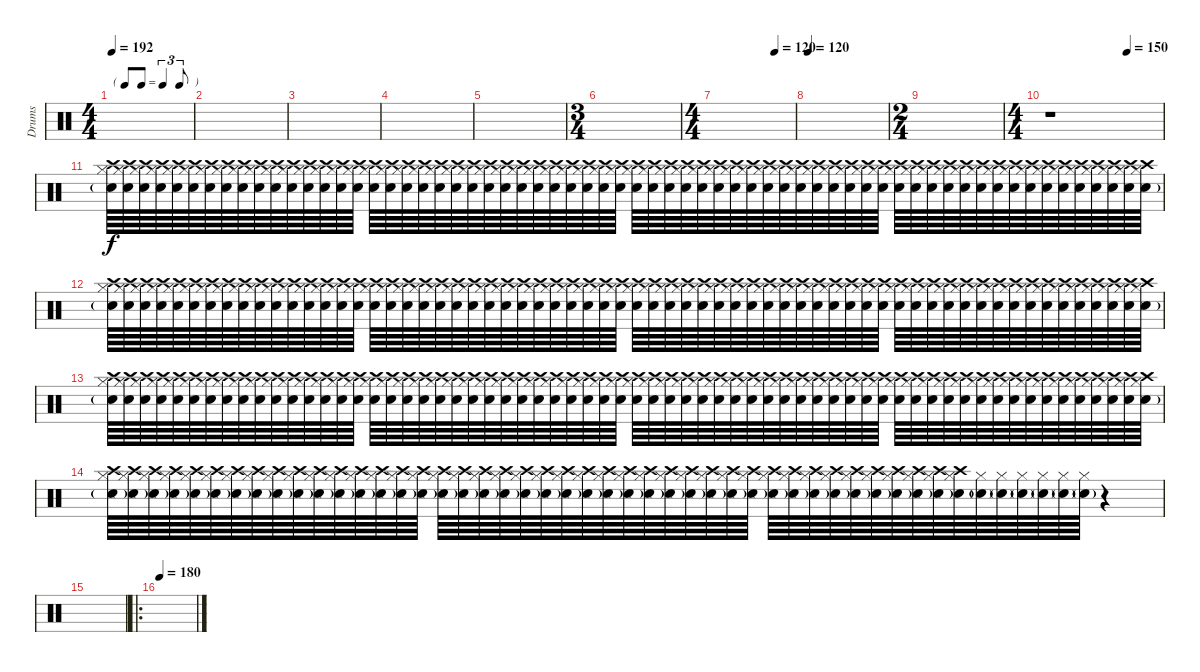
\track ("Drums" "Drums") {instrument percussion}
\staff {score}
\articulation defaults
\ts (4 4)
\tf triplet8th
\tempo 192
\tempo 150
\tempo 192
\clef neutral
\ks c
|
|
|
|
|
\ts (3 4)
|
\ts (4 4)
\tempo (120 0.75)
|
\tempo 120
|
\ts (2 4)
|
\ts (4 4)
\tempo (150 0.6875)
r.1 |
("Hi-Hat (closed)" "Electric Snare (hit)"{g} "Crash high (hit)").64 ("Hi-Hat (closed)" "Electric Snare (hit)"{g} "Crash high (hit)").64 ("Hi-Hat (closed)" "Electric Snare (hit)"{g} "Crash high (hit)").64 ("Hi-Hat (closed)" "Electric Snare (hit)"{g} "Crash high (hit)").64 ("Hi-Hat (closed)" "Electric Snare (hit)"{g} "Crash high (hit)").64 ("Hi-Hat (closed)" "Electric Snare (hit)"{g} "Crash high (hit)").64 ("Hi-Hat (closed)" "Electric Snare (hit)"{g} "Crash high (hit)").64 ("Hi-Hat (closed)" "Electric Snare (hit)"{g} "Crash high (hit)").64 ("Hi-Hat (closed)" "Electric Snare (hit)"{g} "Crash high (hit)").64 ("Hi-Hat (closed)" "Electric Snare (hit)"{g} "Crash high (hit)").64 ("Hi-Hat (closed)" "Electric Snare (hit)"{g} "Crash high (hit)").64 ("Hi-Hat (closed)" "Electric Snare (hit)"{g} "Crash high (hit)").64 ("Hi-Hat (closed)" "Electric Snare (hit)"{g} "Crash high (hit)").64 ("Hi-Hat (closed)" "Electric Snare (hit)"{g} "Crash high (hit)").64 ("Hi-Hat (closed)" "Electric Snare (hit)"{g} "Crash high (hit)").64 ("Hi-Hat (closed)" "Electric Snare (hit)"{g} "Crash high (hit)").64 ("Hi-Hat (closed)" "Electric Snare (hit)"{g} "Crash high (hit)").64 ("Hi-Hat (closed)" "Electric Snare (hit)"{g} "Crash high (hit)").64 ("Hi-Hat (closed)" "Electric Snare (hit)"{g} "Crash high (hit)").64 ("Hi-Hat (closed)" "Electric Snare (hit)"{g} "Crash high (hit)").64 ("Hi-Hat (closed)" "Electric Snare (hit)"{g} "Crash high (hit)").64 ("Hi-Hat (closed)" "Electric Snare (hit)"{g} "Crash high (hit)").64 ("Hi-Hat (closed)" "Electric Snare (hit)"{g} "Crash high (hit)").64 ("Hi-Hat (closed)" "Electric Snare (hit)"{g} "Crash high (hit)").64 ("Hi-Hat (closed)" "Electric Snare (hit)"{g} "Crash high (hit)").64 ("Hi-Hat (closed)" "Electric Snare (hit)"{g} "Crash high (hit)").64 ("Hi-Hat (closed)" "Electric Snare (hit)"{g} "Crash high (hit)").64 ("Hi-Hat (closed)" "Electric Snare (hit)"{g} "Crash high (hit)").64 ("Hi-Hat (closed)" "Electric Snare (hit)"{g} "Crash high (hit)").64 ("Hi-Hat (closed)" "Electric Snare (hit)"{g} "Crash high (hit)").64 ("Hi-Hat (closed)" "Electric Snare (hit)"{g} "Crash high (hit)").64 ("Hi-Hat (closed)" "Electric Snare (hit)"{g} "Crash high (hit)").64 ("Hi-Hat (closed)" "Electric Snare (hit)"{g} "Crash high (hit)").64 ("Hi-Hat (closed)" "Electric Snare (hit)"{g} "Crash high (hit)").64 ("Hi-Hat (closed)" "Electric Snare (hit)"{g} "Crash high (hit)").64 ("Hi-Hat (closed)" "Electric Snare (hit)"{g} "Crash high (hit)").64 ("Hi-Hat (closed)" "Electric Snare (hit)"{g} "Crash high (hit)").64 ("Hi-Hat (closed)" "Electric Snare (hit)"{g} "Crash high (hit)").64 ("Hi-Hat (closed)" "Electric Snare (hit)"{g} "Crash high (hit)").64 ("Hi-Hat (closed)" "Electric Snare (hit)"{g} "Crash high (hit)").64 ("Hi-Hat (closed)" "Electric Snare (hit)"{g} "Crash high (hit)").64 ("Hi-Hat (closed)" "Electric Snare (hit)"{g} "Crash high (hit)").64 ("Hi-Hat (closed)" "Electric Snare (hit)"{g} "Crash high (hit)").64 ("Hi-Hat (closed)" "Electric Snare (hit)"{g} "Crash high (hit)").64 ("Hi-Hat (closed)" "Electric Snare (hit)"{g} "Crash high (hit)").64 ("Hi-Hat (closed)" "Electric Snare (hit)"{g} "Crash high (hit)").64 ("Hi-Hat (closed)" "Electric Snare (hit)"{g} "Crash high (hit)").64 ("Hi-Hat (closed)" "Electric Snare (hit)"{g} "Crash high (hit)").64 ("Hi-Hat (closed)" "Electric Snare (hit)"{g} "Crash high (hit)").64 ("Hi-Hat (closed)" "Electric Snare (hit)"{g} "Crash high (hit)").64 ("Hi-Hat (closed)" "Electric Snare (hit)"{g} "Crash high (hit)").64 ("Hi-Hat (closed)" "Electric Snare (hit)"{g} "Crash high (hit)").64 ("Hi-Hat (closed)" "Electric Snare (hit)"{g} "Crash high (hit)").64 ("Hi-Hat (closed)" "Electric Snare (hit)"{g} "Crash high (hit)").64 ("Hi-Hat (closed)" "Electric Snare (hit)"{g} "Crash high (hit)").64 ("Hi-Hat (closed)" "Electric Snare (hit)"{g} "Crash high (hit)").64 ("Hi-Hat (closed)" "Electric Snare (hit)"{g} "Crash high (hit)").64 ("Hi-Hat (closed)" "Electric Snare (hit)"{g} "Crash high (hit)").64 ("Hi-Hat (closed)" "Electric Snare (hit)"{g} "Crash high (hit)").64 ("Hi-Hat (closed)" "Electric Snare (hit)"{g} "Crash high (hit)").64 ("Hi-Hat (closed)" "Electric Snare (hit)"{g} "Crash high (hit)").64 ("Hi-Hat (closed)" "Electric Snare (hit)"{g} "Crash high (hit)").64 ("Hi-Hat (closed)" "Electric Snare (hit)"{g} "Crash high (hit)").64 ("Hi-Hat (closed)" "Electric Snare (hit)"{g} "Crash high (hit)").64 |
("Hi-Hat (closed)" "Electric Snare (hit)"{g} "Crash high (hit)").64 ("Hi-Hat (closed)" "Electric Snare (hit)"{g} "Crash high (hit)").64 ("Hi-Hat (closed)" "Electric Snare (hit)"{g} "Crash high (hit)").64 ("Hi-Hat (closed)" "Electric Snare (hit)"{g} "Crash high (hit)").64 ("Hi-Hat (closed)" "Electric Snare (hit)"{g} "Crash high (hit)").64 ("Hi-Hat (closed)" "Electric Snare (hit)"{g} "Crash high (hit)").64 ("Hi-Hat (closed)" "Electric Snare (hit)"{g} "Crash high (hit)").64 ("Hi-Hat (closed)" "Electric Snare (hit)"{g} "Crash high (hit)").64 ("Hi-Hat (closed)" "Electric Snare (hit)"{g} "Crash high (hit)").64 ("Hi-Hat (closed)" "Electric Snare (hit)"{g} "Crash high (hit)").64 ("Hi-Hat (closed)" "Electric Snare (hit)"{g} "Crash high (hit)").64 ("Hi-Hat (closed)" "Electric Snare (hit)"{g} "Crash high (hit)").64 ("Hi-Hat (closed)" "Electric Snare (hit)"{g} "Crash high (hit)").64 ("Hi-Hat (closed)" "Electric Snare (hit)"{g} "Crash high (hit)").64 ("Hi-Hat (closed)" "Electric Snare (hit)"{g} "Crash high (hit)").64 ("Hi-Hat (closed)" "Electric Snare (hit)"{g} "Crash high (hit)").64 ("Hi-Hat (closed)" "Electric Snare (hit)"{g} "Crash high (hit)").64 ("Hi-Hat (closed)" "Electric Snare (hit)"{g} "Crash high (hit)").64 ("Hi-Hat (closed)" "Electric Snare (hit)"{g} "Crash high (hit)").64 ("Hi-Hat (closed)" "Electric Snare (hit)"{g} "Crash high (hit)").64 ("Hi-Hat (closed)" "Electric Snare (hit)"{g} "Crash high (hit)").64 ("Hi-Hat (closed)" "Electric Snare (hit)"{g} "Crash high (hit)").64 ("Hi-Hat (closed)" "Electric Snare (hit)"{g} "Crash high (hit)").64 ("Hi-Hat (closed)" "Electric Snare (hit)"{g} "Crash high (hit)").64 ("Hi-Hat (closed)" "Electric Snare (hit)"{g} "Crash high (hit)").64 ("Hi-Hat (closed)" "Electric Snare (hit)"{g} "Crash high (hit)").64 ("Hi-Hat (closed)" "Electric Snare (hit)"{g} "Crash high (hit)").64 ("Hi-Hat (closed)" "Electric Snare (hit)"{g} "Crash high (hit)").64 ("Hi-Hat (closed)" "Electric Snare (hit)"{g} "Crash high (hit)").64 ("Hi-Hat (closed)" "Electric Snare (hit)"{g} "Crash high (hit)").64 ("Hi-Hat (closed)" "Electric Snare (hit)"{g} "Crash high (hit)").64 ("Hi-Hat (closed)" "Electric Snare (hit)"{g} "Crash high (hit)").64 ("Hi-Hat (closed)" "Electric Snare (hit)"{g} "Crash high (hit)").64 ("Hi-Hat (closed)" "Electric Snare (hit)"{g} "Crash high (hit)").64 ("Hi-Hat (closed)" "Electric Snare (hit)"{g} "Crash high (hit)").64 ("Hi-Hat (closed)" "Electric Snare (hit)"{g} "Crash high (hit)").64 ("Hi-Hat (closed)" "Electric Snare (hit)"{g} "Crash high (hit)").64 ("Hi-Hat (closed)" "Electric Snare (hit)"{g} "Crash high (hit)").64 ("Hi-Hat (closed)" "Electric Snare (hit)"{g} "Crash high (hit)").64 ("Hi-Hat (closed)" "Electric Snare (hit)"{g} "Crash high (hit)").64 ("Hi-Hat (closed)" "Electric Snare (hit)"{g} "Crash high (hit)").64 ("Hi-Hat (closed)" "Electric Snare (hit)"{g} "Crash high (hit)").64 ("Hi-Hat (closed)" "Electric Snare (hit)"{g} "Crash high (hit)").64 ("Hi-Hat (closed)" "Electric Snare (hit)"{g} "Crash high (hit)").64 ("Hi-Hat (closed)" "Electric Snare (hit)"{g} "Crash high (hit)").64 ("Hi-Hat (closed)" "Electric Snare (hit)"{g} "Crash high (hit)").64 ("Hi-Hat (closed)" "Electric Snare (hit)"{g} "Crash high (hit)").64 ("Hi-Hat (closed)" "Electric Snare (hit)"{g} "Crash high (hit)").64 ("Hi-Hat (closed)" "Electric Snare (hit)"{g} "Crash high (hit)").64 ("Hi-Hat (closed)" "Electric Snare (hit)"{g} "Crash high (hit)").64 ("Hi-Hat (closed)" "Electric Snare (hit)"{g} "Crash high (hit)").64 ("Hi-Hat (closed)" "Electric Snare (hit)"{g} "Crash high (hit)").64 ("Hi-Hat (closed)" "Electric Snare (hit)"{g} "Crash high (hit)").64 ("Hi-Hat (closed)" "Electric Snare (hit)"{g} "Crash high (hit)").64 ("Hi-Hat (closed)" "Electric Snare (hit)"{g} "Crash high (hit)").64 ("Hi-Hat (closed)" "Electric Snare (hit)"{g} "Crash high (hit)").64 ("Hi-Hat (closed)" "Electric Snare (hit)"{g} "Crash high (hit)").64 ("Hi-Hat (closed)" "Electric Snare (hit)"{g} "Crash high (hit)").64 ("Hi-Hat (closed)" "Electric Snare (hit)"{g} "Crash high (hit)").64 ("Hi-Hat (closed)" "Electric Snare (hit)"{g} "Crash high (hit)").64 ("Hi-Hat (closed)" "Electric Snare (hit)"{g} "Crash high (hit)").64 ("Hi-Hat (closed)" "Electric Snare (hit)"{g} "Crash high (hit)").64 ("Hi-Hat (closed)" "Electric Snare (hit)"{g} "Crash high (hit)").64 ("Hi-Hat (closed)" "Electric Snare (hit)"{g} "Crash high (hit)").64 |
("Hi-Hat (closed)" "Electric Snare (hit)"{g} "Crash high (hit)").64 ("Hi-Hat (closed)" "Electric Snare (hit)"{g} "Crash high (hit)").64 ("Hi-Hat (closed)" "Electric Snare (hit)"{g} "Crash high (hit)").64 ("Hi-Hat (closed)" "Electric Snare (hit)"{g} "Crash high (hit)").64 ("Hi-Hat (closed)" "Electric Snare (hit)"{g} "Crash high (hit)").64 ("Hi-Hat (closed)" "Electric Snare (hit)"{g} "Crash high (hit)").64 ("Hi-Hat (closed)" "Electric Snare (hit)"{g} "Crash high (hit)").64 ("Hi-Hat (closed)" "Electric Snare (hit)"{g} "Crash high (hit)").64 ("Hi-Hat (closed)" "Electric Snare (hit)"{g} "Crash high (hit)").64 ("Hi-Hat (closed)" "Electric Snare (hit)"{g} "Crash high (hit)").64 ("Hi-Hat (closed)" "Electric Snare (hit)"{g} "Crash high (hit)").64 ("Hi-Hat (closed)" "Electric Snare (hit)"{g} "Crash high (hit)").64 ("Hi-Hat (closed)" "Electric Snare (hit)"{g} "Crash high (hit)").64 ("Hi-Hat (closed)" "Electric Snare (hit)"{g} "Crash high (hit)").64 ("Hi-Hat (closed)" "Electric Snare (hit)"{g} "Crash high (hit)").64 ("Hi-Hat (closed)" "Electric Snare (hit)"{g} "Crash high (hit)").64 ("Hi-Hat (closed)" "Electric Snare (hit)"{g} "Crash high (hit)").64 ("Hi-Hat (closed)" "Electric Snare (hit)"{g} "Crash high (hit)").64 ("Hi-Hat (closed)" "Electric Snare (hit)"{g} "Crash high (hit)").64 ("Hi-Hat (closed)" "Electric Snare (hit)"{g} "Crash high (hit)").64 ("Hi-Hat (closed)" "Electric Snare (hit)"{g} "Crash high (hit)").64 ("Hi-Hat (closed)" "Electric Snare (hit)"{g} "Crash high (hit)").64 ("Hi-Hat (closed)" "Electric Snare (hit)"{g} "Crash high (hit)").64 ("Hi-Hat (closed)" "Electric Snare (hit)"{g} "Crash high (hit)").64 ("Hi-Hat (closed)" "Electric Snare (hit)"{g} "Crash high (hit)").64 ("Hi-Hat (closed)" "Electric Snare (hit)"{g} "Crash high (hit)").64 ("Hi-Hat (closed)" "Electric Snare (hit)"{g} "Crash high (hit)").64 ("Hi-Hat (closed)" "Electric Snare (hit)"{g} "Crash high (hit)").64 ("Hi-Hat (closed)" "Electric Snare (hit)"{g} "Crash high (hit)").64 ("Hi-Hat (closed)" "Electric Snare (hit)"{g} "Crash high (hit)").64 ("Hi-Hat (closed)" "Electric Snare (hit)"{g} "Crash high (hit)").64 ("Hi-Hat (closed)" "Electric Snare (hit)"{g} "Crash high (hit)").64 ("Hi-Hat (closed)" "Electric Snare (hit)"{g} "Crash high (hit)").64 ("Hi-Hat (closed)" "Electric Snare (hit)"{g} "Crash high (hit)").64 ("Hi-Hat (closed)" "Electric Snare (hit)"{g} "Crash high (hit)").64 ("Hi-Hat (closed)" "Electric Snare (hit)"{g} "Crash high (hit)").64 ("Hi-Hat (closed)" "Electric Snare (hit)"{g} "Crash high (hit)").64 ("Hi-Hat (closed)" "Electric Snare (hit)"{g} "Crash high (hit)").64 ("Hi-Hat (closed)" "Electric Snare (hit)"{g} "Crash high (hit)").64 ("Hi-Hat (closed)" "Electric Snare (hit)"{g} "Crash high (hit)").64 ("Hi-Hat (closed)" "Electric Snare (hit)"{g} "Crash high (hit)").64 ("Hi-Hat (closed)" "Electric Snare (hit)"{g} "Crash high (hit)").64 ("Hi-Hat (closed)" "Electric Snare (hit)"{g} "Crash high (hit)").64 ("Hi-Hat (closed)" "Electric Snare (hit)"{g} "Crash high (hit)").64 ("Hi-Hat (closed)" "Electric Snare (hit)"{g} "Crash high (hit)").64 ("Hi-Hat (closed)" "Electric Snare (hit)"{g} "Crash high (hit)").64 ("Hi-Hat (closed)" "Electric Snare (hit)"{g} "Crash high (hit)").64 ("Hi-Hat (closed)" "Electric Snare (hit)"{g} "Crash high (hit)").64 ("Hi-Hat (closed)" "Electric Snare (hit)"{g} "Crash high (hit)").64 ("Hi-Hat (closed)" "Electric Snare (hit)"{g} "Crash high (hit)").64 ("Hi-Hat (closed)" "Electric Snare (hit)"{g} "Crash high (hit)").64 ("Hi-Hat (closed)" "Electric Snare (hit)"{g} "Crash high (hit)").64 ("Hi-Hat (closed)" "Electric Snare (hit)"{g} "Crash high (hit)").64 ("Hi-Hat (closed)" "Electric Snare (hit)"{g} "Crash high (hit)").64 ("Hi-Hat (closed)" "Electric Snare (hit)"{g} "Crash high (hit)").64 ("Hi-Hat (closed)" "Electric Snare (hit)"{g} "Crash high (hit)").64 ("Hi-Hat (closed)" "Electric Snare (hit)"{g} "Crash high (hit)").64 ("Hi-Hat (closed)" "Electric Snare (hit)"{g} "Crash high (hit)").64 ("Hi-Hat (closed)" "Electric Snare (hit)"{g} "Crash high (hit)").64 ("Hi-Hat (closed)" "Electric Snare (hit)"{g} "Crash high (hit)").64 ("Hi-Hat (closed)" "Electric Snare (hit)"{g} "Crash high (hit)").64 ("Hi-Hat (closed)" "Electric Snare (hit)"{g} "Crash high (hit)").64 ("Hi-Hat (closed)" "Electric Snare (hit)"{g} "Crash high (hit)").64 ("Hi-Hat (closed)" "Electric Snare (hit)"{g} "Crash high (hit)").64 |
("Hi-Hat (closed)" "Electric Snare (hit)"{g} "Crash high (hit)").64 ("Hi-Hat (closed)" "Electric Snare (hit)"{g} "Crash high (hit)").64 ("Hi-Hat (closed)" "Electric Snare (hit)"{g} "Crash high (hit)").64 ("Hi-Hat (closed)" "Electric Snare (hit)"{g} "Crash high (hit)").64 ("Hi-Hat (closed)" "Electric Snare (hit)"{g} "Crash high (hit)").64 ("Hi-Hat (closed)" "Electric Snare (hit)"{g} "Crash high (hit)").64 ("Hi-Hat (closed)" "Electric Snare (hit)"{g} "Crash high (hit)").64 ("Hi-Hat (closed)" "Electric Snare (hit)"{g} "Crash high (hit)").64 ("Hi-Hat (closed)" "Electric Snare (hit)"{g} "Crash high (hit)").64 ("Hi-Hat (closed)" "Electric Snare (hit)"{g} "Crash high (hit)").64 ("Hi-Hat (closed)" "Electric Snare (hit)"{g} "Crash high (hit)").64 ("Hi-Hat (closed)" "Electric Snare (hit)"{g} "Crash high (hit)").64 ("Hi-Hat (closed)" "Electric Snare (hit)"{g} "Crash high (hit)").64 ("Hi-Hat (closed)" "Electric Snare (hit)"{g} "Crash high (hit)").64 ("Hi-Hat (closed)" "Electric Snare (hit)"{g} "Crash high (hit)").64 ("Hi-Hat (closed)" "Electric Snare (hit)"{g} "Crash high (hit)").64 ("Hi-Hat (closed)" "Electric Snare (hit)"{g} "Crash high (hit)").64 ("Hi-Hat (closed)" "Electric Snare (hit)"{g} "Crash high (hit)").64 ("Hi-Hat (closed)" "Electric Snare (hit)"{g} "Crash high (hit)").64 ("Hi-Hat (closed)" "Electric Snare (hit)"{g} "Crash high (hit)").64 ("Hi-Hat (closed)" "Electric Snare (hit)"{g} "Crash high (hit)").64 ("Hi-Hat (closed)" "Electric Snare (hit)"{g} "Crash high (hit)").64 ("Hi-Hat (closed)" "Electric Snare (hit)"{g} "Crash high (hit)").64 ("Hi-Hat (closed)" "Electric Snare (hit)"{g} "Crash high (hit)").64 ("Hi-Hat (closed)" "Electric Snare (hit)"{g} "Crash high (hit)").64 ("Hi-Hat (closed)" "Electric Snare (hit)"{g} "Crash high (hit)").64 ("Hi-Hat (closed)" "Electric Snare (hit)"{g} "Crash high (hit)").64 ("Hi-Hat (closed)" "Electric Snare (hit)"{g} "Crash high (hit)").64 ("Hi-Hat (closed)" "Electric Snare (hit)"{g} "Crash high (hit)").64 ("Hi-Hat (closed)" "Electric Snare (hit)"{g} "Crash high (hit)").64 ("Hi-Hat (closed)" "Electric Snare (hit)"{g} "Crash high (hit)").64 ("Hi-Hat (closed)" "Electric Snare (hit)"{g} "Crash high (hit)").64 ("Hi-Hat (closed)" "Electric Snare (hit)"{g} "Crash high (hit)").64 ("Hi-Hat (closed)" "Electric Snare (hit)"{g} "Crash high (hit)").64 ("Hi-Hat (closed)" "Electric Snare (hit)"{g} "Crash high (hit)").64 ("Hi-Hat (closed)" "Electric Snare (hit)"{g} "Crash high (hit)").64 ("Hi-Hat (closed)" "Electric Snare (hit)"{g} "Crash high (hit)").64 ("Hi-Hat (closed)" "Electric Snare (hit)"{g} "Crash high (hit)").64 ("Hi-Hat (closed)" "Electric Snare (hit)"{g} "Crash high (hit)").64 ("Hi-Hat (closed)" "Electric Snare (hit)"{g} "Crash high (hit)").64 ("Hi-Hat (closed)" "Electric Snare (hit)"{g} "Crash high (hit)").64 ("Hi-Hat (closed)" "Electric Snare (hit)"{g} "Crash high (hit)").64 ("Hi-Hat (closed)" "Electric Snare (hit)"{g}).64 ("Hi-Hat (closed)" "Electric Snare (hit)"{g}).64 ("Hi-Hat (closed)" "Electric Snare (hit)"{g}).64 ("Hi-Hat (closed)" "Electric Snare (hit)"{g}).64 ("Hi-Hat (closed)" "Electric Snare (hit)"{g}).64 ("Hi-Hat (closed)" "Electric Snare (hit)"{g}).64 r.4 |
|
\ro
\tempo 180
